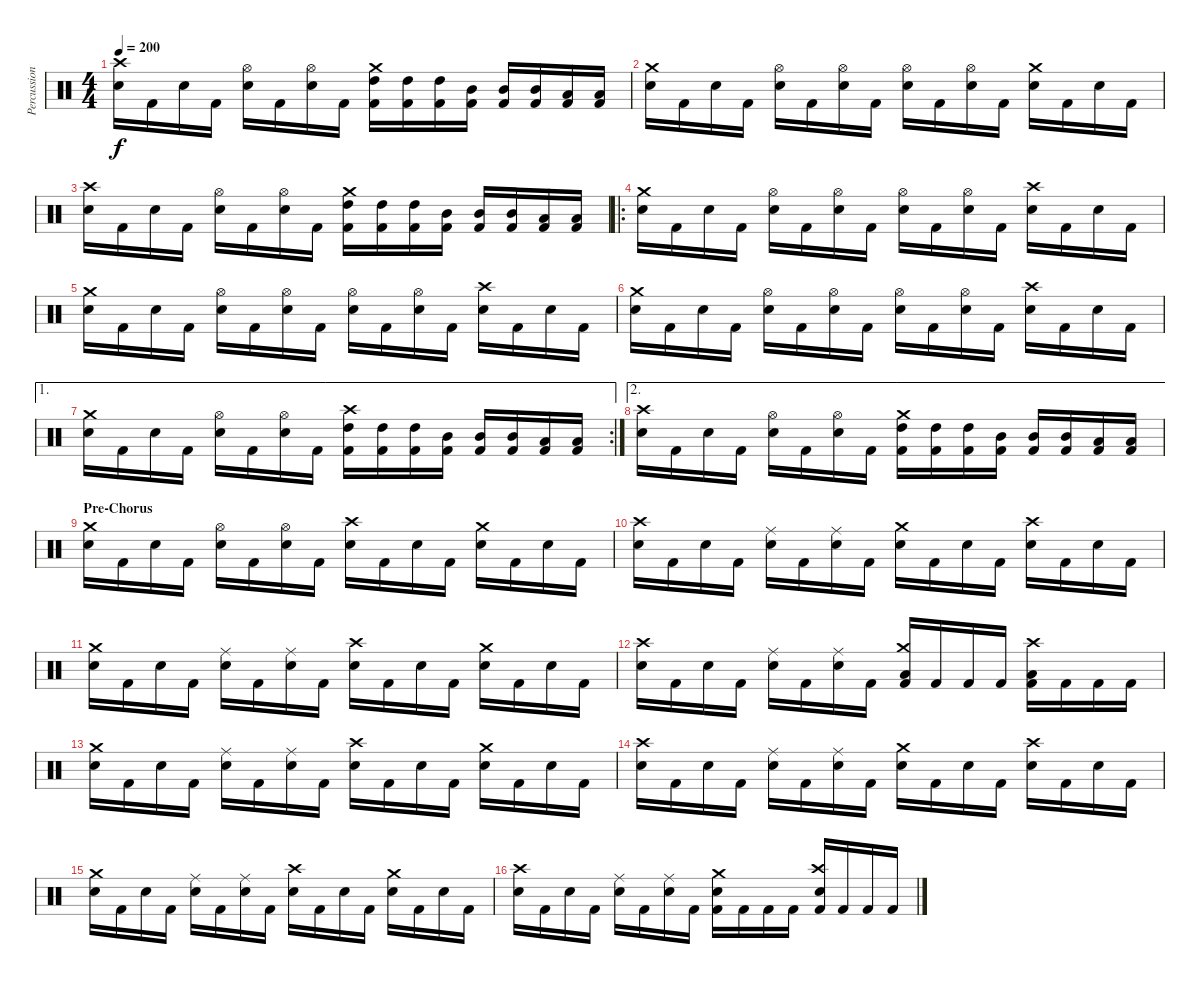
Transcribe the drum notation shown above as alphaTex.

\track ("Percussion" "Percussion") {instrument percussion}
\staff {score}
\articulation defaults
\ts (4 4)
\tempo 200
\clef neutral
\ks c
("Snare (hit) 2" "Crash high (hit)").16{dy f} "Kick (hit) 2".16 "Snare (hit) 2".16 "Kick (hit) 2".16 ("Snare (hit) 2" "Hi-Hat (open)").16 "Kick (hit) 2".16 ("Snare (hit) 2" "Hi-Hat (open)").16 "Kick (hit) 2".16 ("Kick (hit) 2" "High Tom (hit)" "Crash medium (hit)").16 ("Kick (hit) 2" "High Tom (hit)").16 ("Kick (hit) 2" "High Tom (hit)").16 ("Kick (hit) 2" "Mid Tom (hit)").16 ("Kick (hit) 2" "Mid Tom (hit)").16 ("Kick (hit) 2" "Mid Tom (hit)").16 ("Kick (hit) 2" "Low Tom (hit)").16 ("Kick (hit) 2" "Low Tom (hit)").16 |
("Snare (hit) 2" "Crash medium (hit)").16 "Kick (hit) 2".16 "Snare (hit) 2".16 "Kick (hit) 2".16 ("Snare (hit) 2" "Hi-Hat (open)").16 "Kick (hit) 2".16 ("Snare (hit) 2" "Hi-Hat (open)").16 "Kick (hit) 2".16 ("Snare (hit) 2" "Hi-Hat (open)").16 "Kick (hit) 2".16 ("Snare (hit) 2" "Hi-Hat (open)").16 "Kick (hit) 2".16 ("Snare (hit) 2" "Crash medium (hit)").16 "Kick (hit) 2".16 "Snare (hit) 2".16 "Kick (hit) 2".16 |
("Snare (hit) 2" "Crash high (hit)").16 "Kick (hit) 2".16 "Snare (hit) 2".16 "Kick (hit) 2".16 ("Snare (hit) 2" "Hi-Hat (open)").16 "Kick (hit) 2".16 ("Snare (hit) 2" "Hi-Hat (open)").16 "Kick (hit) 2".16 ("Kick (hit) 2" "High Tom (hit)" "Crash medium (hit)").16 ("Kick (hit) 2" "High Tom (hit)").16 ("Kick (hit) 2" "High Tom (hit)").16 ("Kick (hit) 2" "Mid Tom (hit)").16 ("Kick (hit) 2" "Mid Tom (hit)").16 ("Kick (hit) 2" "Mid Tom (hit)").16 ("Kick (hit) 2" "Low Tom (hit)").16 ("Kick (hit) 2" "Low Tom (hit)").16 |
\ro
("Snare (hit) 2" "Crash medium (hit)").16 "Kick (hit) 2".16 "Snare (hit) 2".16 "Kick (hit) 2".16 ("Snare (hit) 2" "Hi-Hat (open)").16 "Kick (hit) 2".16 ("Snare (hit) 2" "Hi-Hat (open)").16 "Kick (hit) 2".16 ("Snare (hit) 2" "Hi-Hat (open)").16 "Kick (hit) 2".16 ("Snare (hit) 2" "Hi-Hat (open)").16 "Kick (hit) 2".16 ("Snare (hit) 2" "Crash high (hit)").16 "Kick (hit) 2".16 "Snare (hit) 2".16 "Kick (hit) 2".16 |
("Snare (hit) 2" "Crash medium (hit)").16 "Kick (hit) 2".16 "Snare (hit) 2".16 "Kick (hit) 2".16 ("Snare (hit) 2" "Hi-Hat (open)").16 "Kick (hit) 2".16 ("Snare (hit) 2" "Hi-Hat (open)").16 "Kick (hit) 2".16 ("Snare (hit) 2" "Hi-Hat (open)").16 "Kick (hit) 2".16 ("Snare (hit) 2" "Hi-Hat (open)").16 "Kick (hit) 2".16 ("Snare (hit) 2" "Crash high (hit)").16 "Kick (hit) 2".16 "Snare (hit) 2".16 "Kick (hit) 2".16 |
("Snare (hit) 2" "Crash medium (hit)").16 "Kick (hit) 2".16 "Snare (hit) 2".16 "Kick (hit) 2".16 ("Snare (hit) 2" "Hi-Hat (open)").16 "Kick (hit) 2".16 ("Snare (hit) 2" "Hi-Hat (open)").16 "Kick (hit) 2".16 ("Snare (hit) 2" "Hi-Hat (open)").16 "Kick (hit) 2".16 ("Snare (hit) 2" "Hi-Hat (open)").16 "Kick (hit) 2".16 ("Snare (hit) 2" "Crash high (hit)").16 "Kick (hit) 2".16 "Snare (hit) 2".16 "Kick (hit) 2".16 |
\ae 1
\rc 2
("Snare (hit) 2" "Crash medium (hit)").16 "Kick (hit) 2".16 "Snare (hit) 2".16 "Kick (hit) 2".16 ("Snare (hit) 2" "Hi-Hat (open)").16 "Kick (hit) 2".16 ("Snare (hit) 2" "Hi-Hat (open)").16 "Kick (hit) 2".16 ("Kick (hit) 2" "High Tom (hit)" "Crash high (hit)").16 ("Kick (hit) 2" "High Tom (hit)").16 ("Kick (hit) 2" "High Tom (hit)").16 ("Kick (hit) 2" "Mid Tom (hit)").16 ("Kick (hit) 2" "Mid Tom (hit)").16 ("Kick (hit) 2" "Mid Tom (hit)").16 ("Kick (hit) 2" "Low Tom (hit)").16 ("Kick (hit) 2" "Low Tom (hit)").16 |
\ae 2
("Snare (hit) 2" "Crash high (hit)").16 "Kick (hit) 2".16 "Snare (hit) 2".16 "Kick (hit) 2".16 ("Snare (hit) 2" "Hi-Hat (open)").16 "Kick (hit) 2".16 ("Snare (hit) 2" "Hi-Hat (open)").16 "Kick (hit) 2".16 ("Kick (hit) 2" "High Tom (hit)" "Crash medium (hit)").16 ("Kick (hit) 2" "High Tom (hit)").16 ("Kick (hit) 2" "High Tom (hit)").16 ("Kick (hit) 2" "Mid Tom (hit)").16 ("Kick (hit) 2" "Mid Tom (hit)").16 ("Kick (hit) 2" "Mid Tom (hit)").16 ("Kick (hit) 2" "Low Tom (hit)").16 ("Kick (hit) 2" "Low Tom (hit)").16 |
\section ("" "Pre-Chorus")
("Snare (hit) 2" "Crash medium (hit)").16 "Kick (hit) 2".16 "Snare (hit) 2".16 "Kick (hit) 2".16 ("Snare (hit) 2" "Hi-Hat (open)").16 "Kick (hit) 2".16 ("Snare (hit) 2" "Hi-Hat (open)").16 "Kick (hit) 2".16 ("Snare (hit) 2" "Crash high (hit)").16 "Kick (hit) 2".16 "Snare (hit) 2".16 "Kick (hit) 2".16 ("Snare (hit) 2" "Crash medium (hit)").16 "Kick (hit) 2".16 "Snare (hit) 2".16 "Kick (hit) 2".16 |
("Snare (hit) 2" "Crash high (hit)").16 "Kick (hit) 2".16 "Snare (hit) 2".16 "Kick (hit) 2".16 ("Snare (hit) 2" "Ride (middle)").16 "Kick (hit) 2".16 ("Snare (hit) 2" "Ride (middle)").16 "Kick (hit) 2".16 ("Snare (hit) 2" "Crash medium (hit)").16 "Kick (hit) 2".16 "Snare (hit) 2".16 "Kick (hit) 2".16 ("Snare (hit) 2" "Crash high (hit)").16 "Kick (hit) 2".16 "Snare (hit) 2".16 "Kick (hit) 2".16 |
("Snare (hit) 2" "Crash medium (hit)").16 "Kick (hit) 2".16 "Snare (hit) 2".16 "Kick (hit) 2".16 ("Snare (hit) 2" "Ride (middle)").16 "Kick (hit) 2".16 ("Snare (hit) 2" "Ride (middle)").16 "Kick (hit) 2".16 ("Snare (hit) 2" "Crash high (hit)").16 "Kick (hit) 2".16 "Snare (hit) 2".16 "Kick (hit) 2".16 ("Snare (hit) 2" "Crash medium (hit)").16 "Kick (hit) 2".16 "Snare (hit) 2".16 "Kick (hit) 2".16 |
("Snare (hit) 2" "Crash high (hit)").16 "Kick (hit) 2".16 "Snare (hit) 2".16 "Kick (hit) 2".16 ("Snare (hit) 2" "Ride (middle)").16 "Kick (hit) 2".16 ("Snare (hit) 2" "Ride (middle)").16 "Kick (hit) 2".16 ("Kick (hit) 2" "Low Tom (hit)" "Crash medium (hit)").16 "Kick (hit) 2".16 "Kick (hit) 2".16 "Kick (hit) 2".16 ("Kick (hit) 2" "Low Tom (hit)" "Crash high (hit)").16 "Kick (hit) 2".16 "Kick (hit) 2".16 "Kick (hit) 2".16 |
("Snare (hit) 2" "Crash medium (hit)").16 "Kick (hit) 2".16 "Snare (hit) 2".16 "Kick (hit) 2".16 ("Snare (hit) 2" "Ride (middle)").16 "Kick (hit) 2".16 ("Snare (hit) 2" "Ride (middle)").16 "Kick (hit) 2".16 ("Snare (hit) 2" "Crash high (hit)").16 "Kick (hit) 2".16 "Snare (hit) 2".16 "Kick (hit) 2".16 ("Snare (hit) 2" "Crash medium (hit)").16 "Kick (hit) 2".16 "Snare (hit) 2".16 "Kick (hit) 2".16 |
("Snare (hit) 2" "Crash high (hit)").16 "Kick (hit) 2".16 "Snare (hit) 2".16 "Kick (hit) 2".16 ("Snare (hit) 2" "Ride (middle)").16 "Kick (hit) 2".16 ("Snare (hit) 2" "Ride (middle)").16 "Kick (hit) 2".16 ("Snare (hit) 2" "Crash medium (hit)").16 "Kick (hit) 2".16 "Snare (hit) 2".16 "Kick (hit) 2".16 ("Snare (hit) 2" "Crash high (hit)").16 "Kick (hit) 2".16 "Snare (hit) 2".16 "Kick (hit) 2".16 |
("Snare (hit) 2" "Crash medium (hit)").16 "Kick (hit) 2".16 "Snare (hit) 2".16 "Kick (hit) 2".16 ("Snare (hit) 2" "Ride (middle)").16 "Kick (hit) 2".16 ("Snare (hit) 2" "Ride (middle)").16 "Kick (hit) 2".16 ("Snare (hit) 2" "Crash high (hit)").16 "Kick (hit) 2".16 "Snare (hit) 2".16 "Kick (hit) 2".16 ("Snare (hit) 2" "Crash medium (hit)").16 "Kick (hit) 2".16 "Snare (hit) 2".16 "Kick (hit) 2".16 |
("Snare (hit) 2" "Crash high (hit)").16 "Kick (hit) 2".16 "Snare (hit) 2".16 "Kick (hit) 2".16 ("Snare (hit) 2" "Ride (middle)").16 "Kick (hit) 2".16 ("Snare (hit) 2" "Ride (middle)").16 "Kick (hit) 2".16 ("Kick (hit) 2" "Snare (hit) 2" "Crash medium (hit)").16 "Kick (hit) 2".16 "Kick (hit) 2".16 "Kick (hit) 2".16 ("Kick (hit) 2" "Snare (hit) 2" "Crash high (hit)").16 "Kick (hit) 2".16 "Kick (hit) 2".16 "Kick (hit) 2".16
